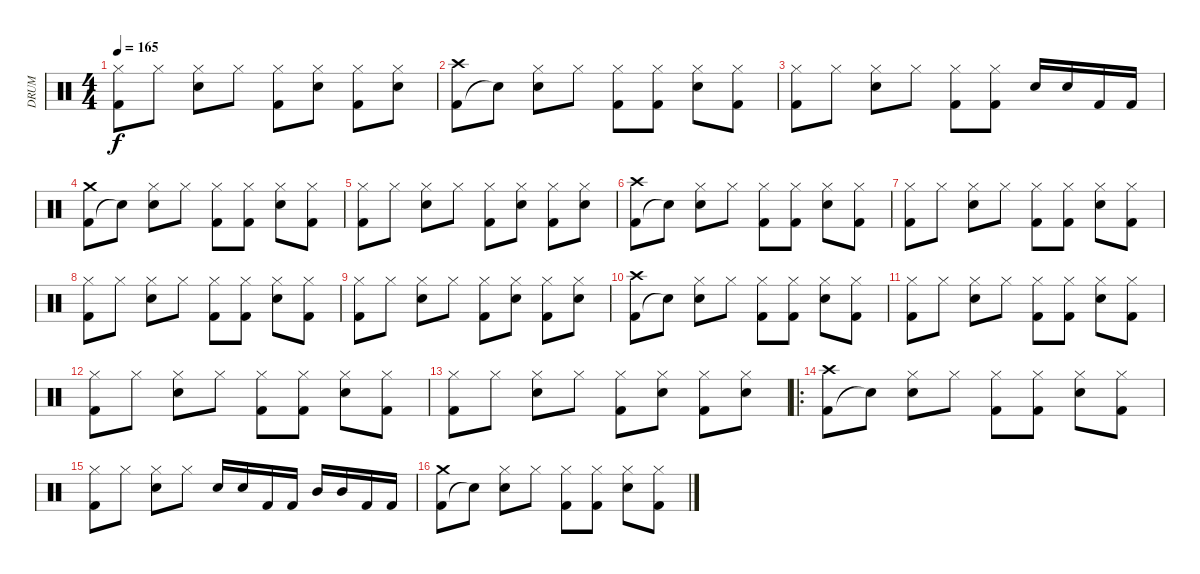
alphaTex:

\track ("DRUM" "DRUM") {instrument percussion}
\staff {score}
\articulation defaults
\ts (4 4)
\tempo 165
\clef neutral
\ks c
("Kick (hit) 2" "Hi-Hat (closed)").8{dy f} "Hi-Hat (closed)".8 ("Electric Snare (hit)" "Hi-Hat (closed)").8 "Hi-Hat (closed)".8 ("Kick (hit) 2" "Hi-Hat (closed)").8 ("Electric Snare (hit)" "Hi-Hat (closed)").8 ("Kick (hit) 2" "Hi-Hat (closed)").8 ("Electric Snare (hit)" "Hi-Hat (closed)").8 |
("Kick (hit) 2" "Crash high (hit)").8 "Snare (hit)"{t}.8 ("Electric Snare (hit)" "Hi-Hat (closed)").8 "Hi-Hat (closed)".8 ("Kick (hit) 2" "Hi-Hat (closed)").8 ("Kick (hit) 2" "Hi-Hat (closed)").8 ("Electric Snare (hit)" "Hi-Hat (closed)").8 ("Kick (hit) 2" "Hi-Hat (closed)").8 |
("Kick (hit) 2" "Hi-Hat (closed)").8 "Hi-Hat (closed)".8 ("Electric Snare (hit)" "Hi-Hat (closed)").8 "Hi-Hat (closed)".8 ("Kick (hit) 2" "Hi-Hat (closed)").8 ("Kick (hit) 2" "Hi-Hat (closed)").8 "Electric Snare (hit)".16 "Electric Snare (hit)".16 "Kick (hit) 2".16 "Kick (hit) 2".16 |
("Kick (hit) 2" "Crash medium (hit)").8 "Snare (hit)"{t}.8 ("Electric Snare (hit)" "Hi-Hat (closed)").8 "Hi-Hat (closed)".8 ("Kick (hit) 2" "Hi-Hat (closed)").8 ("Kick (hit) 2" "Hi-Hat (closed)").8 ("Electric Snare (hit)" "Hi-Hat (closed)").8 ("Kick (hit) 2" "Hi-Hat (closed)").8 |
("Kick (hit) 2" "Hi-Hat (closed)").8 "Hi-Hat (closed)".8 ("Electric Snare (hit)" "Hi-Hat (closed)").8 "Hi-Hat (closed)".8 ("Kick (hit) 2" "Hi-Hat (closed)").8 ("Electric Snare (hit)" "Hi-Hat (closed)").8 ("Kick (hit) 2" "Hi-Hat (closed)").8 ("Electric Snare (hit)" "Hi-Hat (closed)").8 |
("Kick (hit) 2" "Crash high (hit)").8 "Snare (hit)"{t}.8 ("Electric Snare (hit)" "Hi-Hat (closed)").8 "Hi-Hat (closed)".8 ("Kick (hit) 2" "Hi-Hat (closed)").8 ("Kick (hit) 2" "Hi-Hat (closed)").8 ("Electric Snare (hit)" "Hi-Hat (closed)").8 ("Kick (hit) 2" "Hi-Hat (closed)").8 |
("Kick (hit) 2" "Hi-Hat (closed)").8 "Hi-Hat (closed)".8 ("Electric Snare (hit)" "Hi-Hat (closed)").8 "Hi-Hat (closed)".8 ("Kick (hit) 2" "Hi-Hat (closed)").8 ("Kick (hit) 2" "Hi-Hat (closed)").8 ("Electric Snare (hit)" "Hi-Hat (closed)").8 ("Kick (hit) 2" "Hi-Hat (closed)").8 |
("Kick (hit) 2" "Hi-Hat (closed)").8 "Hi-Hat (closed)".8 ("Electric Snare (hit)" "Hi-Hat (closed)").8 "Hi-Hat (closed)".8 ("Kick (hit) 2" "Hi-Hat (closed)").8 ("Kick (hit) 2" "Hi-Hat (closed)").8 ("Electric Snare (hit)" "Hi-Hat (closed)").8 ("Kick (hit) 2" "Hi-Hat (closed)").8 |
("Kick (hit) 2" "Hi-Hat (closed)").8 "Hi-Hat (closed)".8 ("Electric Snare (hit)" "Hi-Hat (closed)").8 "Hi-Hat (closed)".8 ("Kick (hit) 2" "Hi-Hat (closed)").8 ("Electric Snare (hit)" "Hi-Hat (closed)").8 ("Kick (hit) 2" "Hi-Hat (closed)").8 ("Electric Snare (hit)" "Hi-Hat (closed)").8 |
("Kick (hit) 2" "Crash high (hit)").8 "Snare (hit)"{t}.8 ("Electric Snare (hit)" "Hi-Hat (closed)").8 "Hi-Hat (closed)".8 ("Kick (hit) 2" "Hi-Hat (closed)").8 ("Kick (hit) 2" "Hi-Hat (closed)").8 ("Electric Snare (hit)" "Hi-Hat (closed)").8 ("Kick (hit) 2" "Hi-Hat (closed)").8 |
("Kick (hit) 2" "Hi-Hat (closed)").8 "Hi-Hat (closed)".8 ("Electric Snare (hit)" "Hi-Hat (closed)").8 "Hi-Hat (closed)".8 ("Kick (hit) 2" "Hi-Hat (closed)").8 ("Kick (hit) 2" "Hi-Hat (closed)").8 ("Electric Snare (hit)" "Hi-Hat (closed)").8 ("Kick (hit) 2" "Hi-Hat (closed)").8 |
("Kick (hit) 2" "Hi-Hat (closed)").8 "Hi-Hat (closed)".8 ("Electric Snare (hit)" "Hi-Hat (closed)").8 "Hi-Hat (closed)".8 ("Kick (hit) 2" "Hi-Hat (closed)").8 ("Kick (hit) 2" "Hi-Hat (closed)").8 ("Electric Snare (hit)" "Hi-Hat (closed)").8 ("Kick (hit) 2" "Hi-Hat (closed)").8 |
("Kick (hit) 2" "Hi-Hat (closed)").8 "Hi-Hat (closed)".8 ("Electric Snare (hit)" "Hi-Hat (closed)").8 "Hi-Hat (closed)".8 ("Kick (hit) 2" "Hi-Hat (closed)").8 ("Electric Snare (hit)" "Hi-Hat (closed)").8 ("Kick (hit) 2" "Hi-Hat (closed)").8 ("Electric Snare (hit)" "Hi-Hat (closed)").8 |
\ro
("Kick (hit) 2" "Crash high (hit)").8 "Snare (hit)"{t}.8 ("Electric Snare (hit)" "Hi-Hat (closed)").8 "Hi-Hat (closed)".8 ("Kick (hit) 2" "Hi-Hat (closed)").8 ("Kick (hit) 2" "Hi-Hat (closed)").8 ("Electric Snare (hit)" "Hi-Hat (closed)").8 ("Kick (hit) 2" "Hi-Hat (closed)").8 |
("Kick (hit) 2" "Hi-Hat (closed)").8 "Hi-Hat (closed)".8 ("Electric Snare (hit)" "Hi-Hat (closed)").8 "Hi-Hat (closed)".8 "Electric Snare (hit)".16 "Electric Snare (hit)".16 "Kick (hit) 2".16 "Kick (hit) 2".16 "Mid Tom (hit)".16 "Mid Tom (hit)".16 "Kick (hit) 2".16 "Kick (hit) 2".16 |
("Kick (hit) 2" "Crash medium (hit)").8 "Snare (hit)"{t}.8 ("Electric Snare (hit)" "Hi-Hat (closed)").8 "Hi-Hat (closed)".8 ("Kick (hit) 2" "Hi-Hat (closed)").8 ("Kick (hit) 2" "Hi-Hat (closed)").8 ("Electric Snare (hit)" "Hi-Hat (closed)").8 ("Kick (hit) 2" "Hi-Hat (closed)").8
